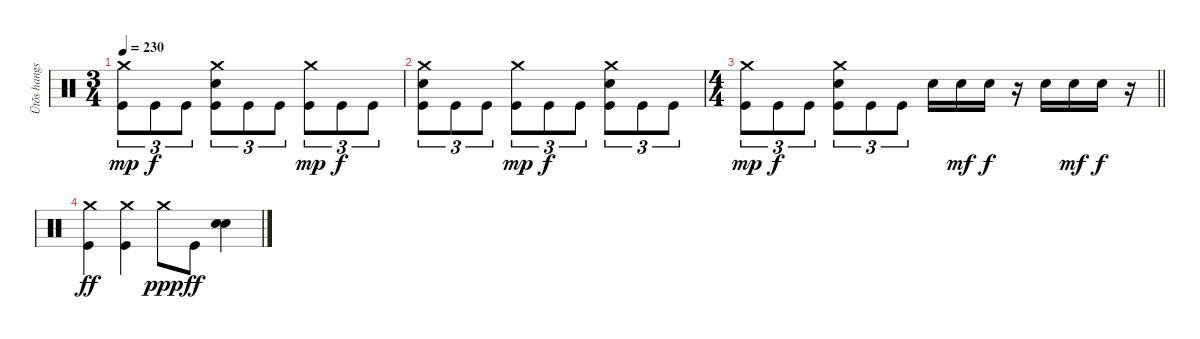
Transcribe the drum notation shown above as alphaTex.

\track ("Ütõs hangszer" "Ütõs hangs") {instrument percussion}
\staff {score}
\articulation defaults
\ts (3 4)
\tempo 230
\clef neutral
\ks c
("Crash medium (hit)" "Kick (hit)").8{tu (3 2) dy mp} "Kick (hit)".8{tu (3 2) dy f} "Kick (hit)".8{tu (3 2)} ("Crash medium (hit)" "Electric Snare (hit)" "Kick (hit)").8{tu (3 2)} "Kick (hit)".8{tu (3 2)} "Kick (hit)".8{tu (3 2)} ("Crash medium (hit)" "Kick (hit)").8{tu (3 2) dy mp} "Kick (hit)".8{tu (3 2) dy f} "Kick (hit)".8{tu (3 2)} |
("Crash medium (hit)" "Electric Snare (hit)" "Kick (hit)").8{tu (3 2)} "Kick (hit)".8{tu (3 2)} "Kick (hit)".8{tu (3 2)} ("Crash medium (hit)" "Kick (hit)").8{tu (3 2) dy mp} "Kick (hit)".8{tu (3 2) dy f} "Kick (hit)".8{tu (3 2)} ("Crash medium (hit)" "Electric Snare (hit)" "Kick (hit)").8{tu (3 2)} "Kick (hit)".8{tu (3 2)} "Kick (hit)".8{tu (3 2)} |
\ts (4 4)
\barLineRight lightlight
("Crash medium (hit)" "Kick (hit)").8{tu (3 2) dy mp} "Kick (hit)".8{tu (3 2) dy f} "Kick (hit)".8{tu (3 2)} ("Crash medium (hit)" "Electric Snare (hit)" "Kick (hit)").8{tu (3 2)} "Kick (hit)".8{tu (3 2)} "Kick (hit)".8{tu (3 2)} "Electric Snare (hit)".16 "Electric Snare (hit)".16{dy mf} "Electric Snare (hit)".16{dy f} r.16 "Electric Snare (hit)".16 "Electric Snare (hit)".16{dy mf} "Electric Snare (hit)".16{dy f} r.16 |
("Crash medium (hit)" "Kick (hit)").4{dy ff} ("Crash medium (hit)" "Kick (hit)").4 "Crash medium (hit)".8{dy ppp} "Kick (hit)".8{dy ff} ("Electric Snare (hit)" "Electric Snare (hit)").4{bu 480}
